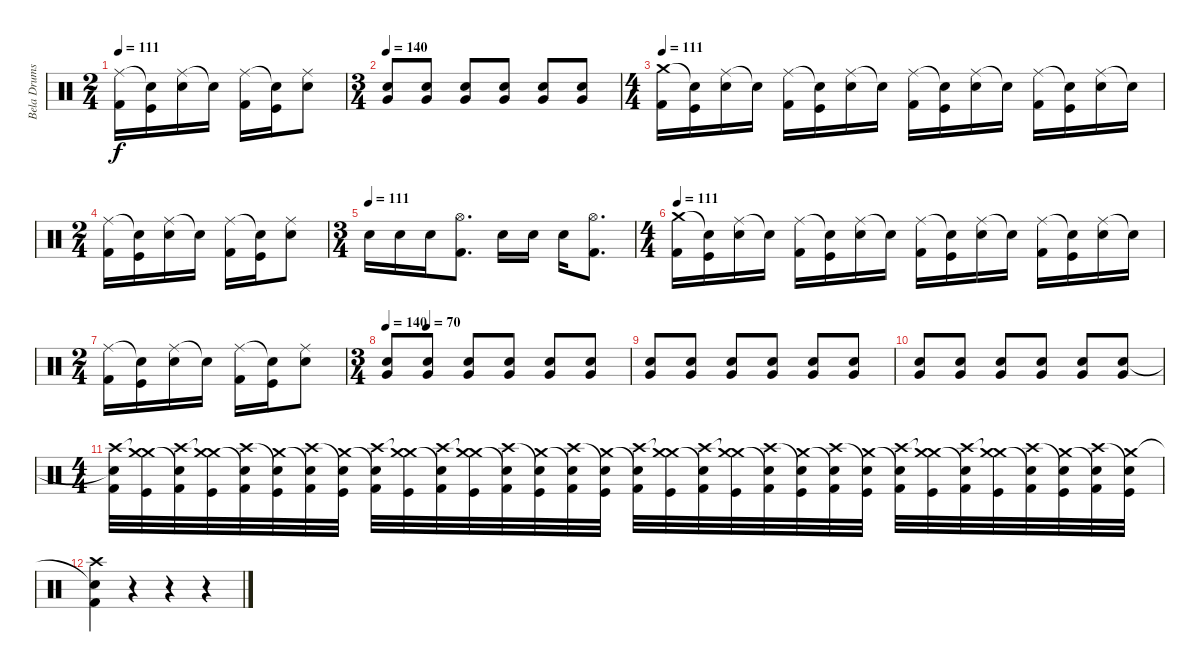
\track ("Bela Drums" "Bela Drums") {instrument percussion}
\staff {score}
\articulation defaults
\ts (2 4)
\tempo 111
\clef neutral
\ks c
("Ride (middle)" "Kick (hit) 2").16{dy f} ("Snare (hit)"{t} "Kick (hit)").16 ("Ride (middle)" "Snare (hit) 2").16 "Snare (hit)"{t}.16 ("Ride (middle)" "Kick (hit) 2").16 ("Snare (hit)"{t} "Kick (hit)").16 ("Ride (middle)" "Snare (hit) 2").8 |
\ts (3 4)
\tempo 140
("Very Low Tom (hit)" "Snare (hit) 2").8 ("Very Low Tom (hit)" "Snare (hit) 2").8 ("Very Low Tom (hit)" "Snare (hit) 2").8 ("Very Low Tom (hit)" "Snare (hit) 2").8 ("Very Low Tom (hit)" "Snare (hit) 2").8 ("Very Low Tom (hit)" "Snare (hit) 2").8 |
\ts (4 4)
\tempo 111
("Crash medium (hit)" "Kick (hit) 2").16 ("Snare (hit)"{t} "Kick (hit)").16 ("Ride (middle)" "Snare (hit) 2").16 "Snare (hit)"{t}.16 ("Ride (middle)" "Kick (hit) 2").16 ("Snare (hit)"{t} "Kick (hit)").16 ("Ride (middle)" "Snare (hit) 2").16 "Snare (hit)"{t}.16 ("Ride (middle)" "Kick (hit) 2").16 ("Snare (hit)"{t} "Kick (hit)").16 ("Ride (middle)" "Snare (hit) 2").16 "Snare (hit)"{t}.16 ("Ride (middle)" "Kick (hit) 2").16 ("Snare (hit)"{t} "Kick (hit)").16 ("Ride (middle)" "Snare (hit) 2").16 "Snare (hit)"{t}.16 |
\ts (2 4)
("Ride (middle)" "Kick (hit) 2").16 ("Snare (hit)"{t} "Kick (hit)").16 ("Ride (middle)" "Snare (hit) 2").16 "Snare (hit)"{t}.16 ("Ride (middle)" "Kick (hit) 2").16 ("Snare (hit)"{t} "Kick (hit)").16 ("Ride (middle)" "Snare (hit) 2").8 |
\ts (3 4)
\tempo (111)
"Snare (hit) 2".16 "Snare (hit) 2".16 "Snare (hit) 2".16 ("Hi-Hat (open)" "Kick (hit) 2").8{d} "Snare (hit) 2".16 "Snare (hit) 2".16 "Snare (hit) 2".16 ("Hi-Hat (open)" "Kick (hit) 2").8{d} |
\ts (4 4)
\tempo 111
("Crash medium (hit)" "Kick (hit) 2").16 ("Snare (hit)"{t} "Kick (hit)").16 ("Ride (middle)" "Snare (hit) 2").16 "Snare (hit)"{t}.16 ("Ride (middle)" "Kick (hit) 2").16 ("Snare (hit)"{t} "Kick (hit)").16 ("Ride (middle)" "Snare (hit) 2").16 "Snare (hit)"{t}.16 ("Ride (middle)" "Kick (hit) 2").16 ("Snare (hit)"{t} "Kick (hit)").16 ("Ride (middle)" "Snare (hit) 2").16 "Snare (hit)"{t}.16 ("Ride (middle)" "Kick (hit) 2").16 ("Snare (hit)"{t} "Kick (hit)").16 ("Ride (middle)" "Snare (hit) 2").16 "Snare (hit)"{t}.16 |
\ts (2 4)
("Ride (middle)" "Kick (hit) 2").16 ("Snare (hit)"{t} "Kick (hit)").16 ("Ride (middle)" "Snare (hit) 2").16 "Snare (hit)"{t}.16 ("Ride (middle)" "Kick (hit) 2").16 ("Snare (hit)"{t} "Kick (hit)").16 ("Ride (middle)" "Snare (hit) 2").8 |
\ts (3 4)
\tempo 140
\tempo (70 0.16666666666666666)
("Very Low Tom (hit)" "Snare (hit) 2").8 ("Very Low Tom (hit)" "Snare (hit) 2").8 ("Very Low Tom (hit)" "Snare (hit) 2").8 ("Very Low Tom (hit)" "Snare (hit) 2").8 ("Very Low Tom (hit)" "Snare (hit) 2").8 ("Very Low Tom (hit)" "Snare (hit) 2").8 |
("Very Low Tom (hit)" "Snare (hit) 2").8 ("Very Low Tom (hit)" "Snare (hit) 2").8 ("Very Low Tom (hit)" "Snare (hit) 2").8 ("Very Low Tom (hit)" "Snare (hit) 2").8 ("Very Low Tom (hit)" "Snare (hit) 2").8 ("Very Low Tom (hit)" "Snare (hit) 2").8 |
("Very Low Tom (hit)" "Snare (hit) 2").8 ("Very Low Tom (hit)" "Snare (hit) 2").8 ("Very Low Tom (hit)" "Snare (hit) 2").8 ("Very Low Tom (hit)" "Snare (hit) 2").8 ("Very Low Tom (hit)" "Snare (hit) 2").8 ("Very Low Tom (hit)" "Snare (hit) 2").8 |
\ts (4 4)
("Crash high (hit)" "Snare (hit)"{t} "Kick (hit) 2").32 ("Crash medium (hit)"{t} "Crash medium (hit)" "Kick (hit)").32 ("Crash high (hit)" "Snare (hit)"{t} "Kick (hit) 2").32 ("Crash medium (hit)"{t} "Crash medium (hit)" "Kick (hit)").32 ("Crash high (hit)" "Snare (hit)"{t} "Kick (hit) 2").32 ("Snare (hit)"{t} "Crash medium (hit)" "Kick (hit)").32 ("Crash high (hit)" "Snare (hit)"{t} "Kick (hit) 2").32 ("Snare (hit)"{t} "Crash medium (hit)" "Kick (hit)").32 ("Crash high (hit)" "Snare (hit)"{t} "Kick (hit) 2").32 ("Crash medium (hit)"{t} "Crash medium (hit)" "Kick (hit)").32 ("Crash high (hit)" "Snare (hit)"{t} "Kick (hit) 2").32 ("Crash medium (hit)"{t} "Crash medium (hit)" "Kick (hit)").32 ("Crash high (hit)" "Snare (hit)"{t} "Kick (hit) 2").32 ("Snare (hit)"{t} "Crash medium (hit)" "Kick (hit)").32 ("Crash high (hit)" "Snare (hit)"{t} "Kick (hit) 2").32 ("Snare (hit)"{t} "Crash medium (hit)" "Kick (hit)").32 ("Crash high (hit)" "Snare (hit)"{t} "Kick (hit) 2").32 ("Crash medium (hit)"{t} "Crash medium (hit)" "Kick (hit)").32 ("Crash high (hit)" "Snare (hit)"{t} "Kick (hit) 2").32 ("Crash medium (hit)"{t} "Crash medium (hit)" "Kick (hit)").32 ("Crash high (hit)" "Snare (hit)"{t} "Kick (hit) 2").32 ("Snare (hit)"{t} "Crash medium (hit)" "Kick (hit)").32 ("Crash high (hit)" "Snare (hit)"{t} "Kick (hit) 2").32 ("Snare (hit)"{t} "Crash medium (hit)" "Kick (hit)").32 ("Crash high (hit)" "Snare (hit)"{t} "Kick (hit) 2").32 ("Crash medium (hit)"{t} "Crash medium (hit)" "Kick (hit)").32 ("Crash high (hit)" "Snare (hit)"{t} "Kick (hit) 2").32 ("Crash medium (hit)"{t} "Crash medium (hit)" "Kick (hit)").32 ("Crash high (hit)" "Snare (hit)"{t} "Kick (hit) 2").32 ("Snare (hit)"{t} "Crash medium (hit)" "Kick (hit)").32 ("Crash high (hit)" "Snare (hit)"{t} "Kick (hit) 2").32 ("Snare (hit)"{t} "Crash medium (hit)" "Kick (hit)").32 |
("Crash high (hit)" "Snare (hit)"{t} "Kick (hit) 2").4 r.4 r.4 r.4
